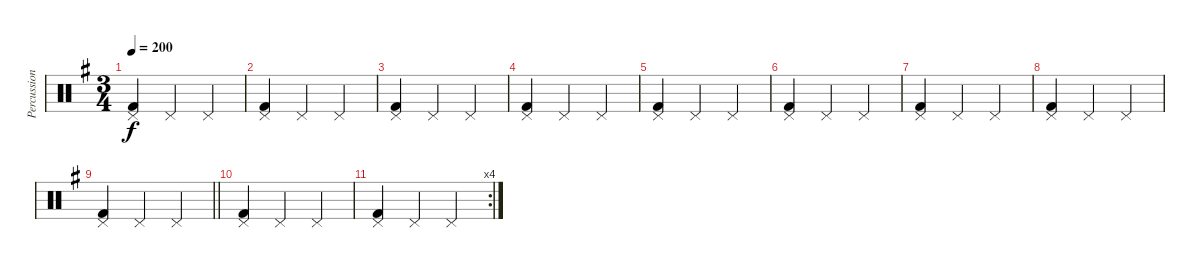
\track ("Percussions" "Percussion") {instrument percussion}
\staff {score}
\articulation defaults
\ts (3 4)
\tempo 200
\clef neutral
\ks g
("Pedal Hi-Hat (hit)" "Kick (hit) 2").4{dy f} "Pedal Hi-Hat (hit)".4 "Pedal Hi-Hat (hit)".4 |
("Pedal Hi-Hat (hit)" "Kick (hit) 2").4 "Pedal Hi-Hat (hit)".4 "Pedal Hi-Hat (hit)".4 |
("Pedal Hi-Hat (hit)" "Kick (hit) 2").4 "Pedal Hi-Hat (hit)".4 "Pedal Hi-Hat (hit)".4 |
("Pedal Hi-Hat (hit)" "Kick (hit) 2").4 "Pedal Hi-Hat (hit)".4 "Pedal Hi-Hat (hit)".4 |
("Pedal Hi-Hat (hit)" "Kick (hit) 2").4 "Pedal Hi-Hat (hit)".4 "Pedal Hi-Hat (hit)".4 |
("Pedal Hi-Hat (hit)" "Kick (hit) 2").4 "Pedal Hi-Hat (hit)".4 "Pedal Hi-Hat (hit)".4 |
("Pedal Hi-Hat (hit)" "Kick (hit) 2").4 "Pedal Hi-Hat (hit)".4 "Pedal Hi-Hat (hit)".4 |
("Pedal Hi-Hat (hit)" "Kick (hit) 2").4 "Pedal Hi-Hat (hit)".4 "Pedal Hi-Hat (hit)".4 |
\barLineRight lightlight
("Pedal Hi-Hat (hit)" "Kick (hit) 2").4 "Pedal Hi-Hat (hit)".4 "Pedal Hi-Hat (hit)".4 |
("Pedal Hi-Hat (hit)" "Kick (hit) 2").4 "Pedal Hi-Hat (hit)".4 "Pedal Hi-Hat (hit)".4 |
\rc 4
("Pedal Hi-Hat (hit)" "Kick (hit) 2").4 "Pedal Hi-Hat (hit)".4 "Pedal Hi-Hat (hit)".4
